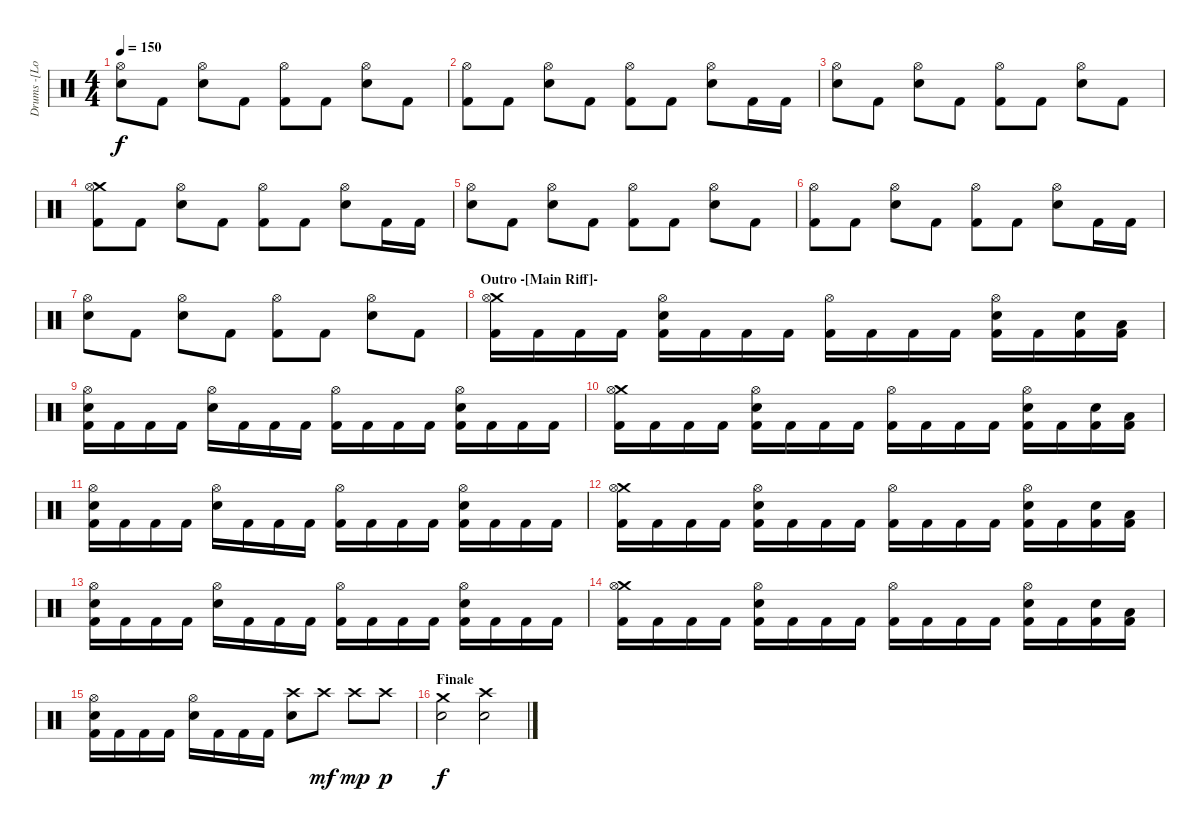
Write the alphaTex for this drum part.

\track ("Drums -[Lorenz]-" "Drums -[Lo") {instrument percussion}
\staff {score}
\articulation defaults
\ts (4 4)
\tempo 150
\clef neutral
\ks c
("Hi-Hat (open)" "Electric Snare (hit)").8{dy f} "Kick (hit) 2".8 ("Hi-Hat (open)" "Electric Snare (hit)").8 "Kick (hit) 2".8 ("Hi-Hat (open)" "Kick (hit) 2").8 "Kick (hit) 2".8 ("Hi-Hat (open)" "Electric Snare (hit)").8 "Kick (hit) 2".8 |
("Hi-Hat (open)" "Kick (hit) 2").8 "Kick (hit) 2".8 ("Hi-Hat (open)" "Electric Snare (hit)").8 "Kick (hit) 2".8 ("Hi-Hat (open)" "Kick (hit) 2").8 "Kick (hit) 2".8 ("Hi-Hat (open)" "Electric Snare (hit)").8 "Kick (hit) 2".16 "Kick (hit) 2".16 |
("Hi-Hat (open)" "Electric Snare (hit)").8 "Kick (hit) 2".8 ("Hi-Hat (open)" "Electric Snare (hit)").8 "Kick (hit) 2".8 ("Hi-Hat (open)" "Kick (hit) 2").8 "Kick (hit) 2".8 ("Hi-Hat (open)" "Electric Snare (hit)").8 "Kick (hit) 2".8 |
("Crash medium (hit)" "Hi-Hat (open)" "Kick (hit) 2").8 "Kick (hit) 2".8 ("Hi-Hat (open)" "Electric Snare (hit)").8 "Kick (hit) 2".8 ("Hi-Hat (open)" "Kick (hit) 2").8 "Kick (hit) 2".8 ("Hi-Hat (open)" "Electric Snare (hit)").8 "Kick (hit) 2".16 "Kick (hit) 2".16 |
("Hi-Hat (open)" "Electric Snare (hit)").8 "Kick (hit) 2".8 ("Hi-Hat (open)" "Electric Snare (hit)").8 "Kick (hit) 2".8 ("Hi-Hat (open)" "Kick (hit) 2").8 "Kick (hit) 2".8 ("Hi-Hat (open)" "Electric Snare (hit)").8 "Kick (hit) 2".8 |
("Hi-Hat (open)" "Kick (hit) 2").8 "Kick (hit) 2".8 ("Hi-Hat (open)" "Electric Snare (hit)").8 "Kick (hit) 2".8 ("Hi-Hat (open)" "Kick (hit) 2").8 "Kick (hit) 2".8 ("Hi-Hat (open)" "Electric Snare (hit)").8 "Kick (hit) 2".16 "Kick (hit) 2".16 |
("Hi-Hat (open)" "Electric Snare (hit)").8 "Kick (hit) 2".8 ("Hi-Hat (open)" "Electric Snare (hit)").8 "Kick (hit) 2".8 ("Hi-Hat (open)" "Kick (hit) 2").8 "Kick (hit) 2".8 ("Hi-Hat (open)" "Electric Snare (hit)").8 "Kick (hit) 2".8 |
\section ("" "Outro -[Main Riff]-")
("Crash medium (hit)" "Hi-Hat (open)" "Kick (hit) 2").16 "Kick (hit) 2".16 "Kick (hit) 2".16 "Kick (hit) 2".16 ("Hi-Hat (open)" "Electric Snare (hit)" "Kick (hit) 2").16 "Kick (hit) 2".16 "Kick (hit) 2".16 "Kick (hit) 2".16 ("Hi-Hat (open)" "Kick (hit) 2").16 "Kick (hit) 2".16 "Kick (hit) 2".16 "Kick (hit) 2".16 ("Hi-Hat (open)" "Electric Snare (hit)" "Kick (hit) 2").16 "Kick (hit) 2".16 ("Electric Snare (hit)" "Kick (hit) 2").16 ("Low Tom (hit)" "Kick (hit) 2").16 |
("Hi-Hat (open)" "Electric Snare (hit)" "Kick (hit) 2").16 "Kick (hit) 2".16 "Kick (hit) 2".16 "Kick (hit) 2".16 ("Hi-Hat (open)" "Electric Snare (hit)").16 "Kick (hit) 2".16 "Kick (hit) 2".16 "Kick (hit) 2".16 ("Hi-Hat (open)" "Kick (hit) 2").16 "Kick (hit) 2".16 "Kick (hit) 2".16 "Kick (hit) 2".16 ("Hi-Hat (open)" "Electric Snare (hit)" "Kick (hit) 2").16 "Kick (hit) 2".16 "Kick (hit) 2".16 "Kick (hit) 2".16 |
("Crash medium (hit)" "Hi-Hat (open)" "Kick (hit) 2").16 "Kick (hit) 2".16 "Kick (hit) 2".16 "Kick (hit) 2".16 ("Hi-Hat (open)" "Electric Snare (hit)" "Kick (hit) 2").16 "Kick (hit) 2".16 "Kick (hit) 2".16 "Kick (hit) 2".16 ("Hi-Hat (open)" "Kick (hit) 2").16 "Kick (hit) 2".16 "Kick (hit) 2".16 "Kick (hit) 2".16 ("Hi-Hat (open)" "Electric Snare (hit)" "Kick (hit) 2").16 "Kick (hit) 2".16 ("Electric Snare (hit)" "Kick (hit) 2").16 ("Low Tom (hit)" "Kick (hit) 2").16 |
("Hi-Hat (open)" "Electric Snare (hit)" "Kick (hit) 2").16 "Kick (hit) 2".16 "Kick (hit) 2".16 "Kick (hit) 2".16 ("Hi-Hat (open)" "Electric Snare (hit)").16 "Kick (hit) 2".16 "Kick (hit) 2".16 "Kick (hit) 2".16 ("Hi-Hat (open)" "Kick (hit) 2").16 "Kick (hit) 2".16 "Kick (hit) 2".16 "Kick (hit) 2".16 ("Hi-Hat (open)" "Electric Snare (hit)" "Kick (hit) 2").16 "Kick (hit) 2".16 "Kick (hit) 2".16 "Kick (hit) 2".16 |
("Crash medium (hit)" "Hi-Hat (open)" "Kick (hit) 2").16 "Kick (hit) 2".16 "Kick (hit) 2".16 "Kick (hit) 2".16 ("Hi-Hat (open)" "Electric Snare (hit)" "Kick (hit) 2").16 "Kick (hit) 2".16 "Kick (hit) 2".16 "Kick (hit) 2".16 ("Hi-Hat (open)" "Kick (hit) 2").16 "Kick (hit) 2".16 "Kick (hit) 2".16 "Kick (hit) 2".16 ("Hi-Hat (open)" "Electric Snare (hit)" "Kick (hit) 2").16 "Kick (hit) 2".16 ("Electric Snare (hit)" "Kick (hit) 2").16 ("Low Tom (hit)" "Kick (hit) 2").16 |
("Hi-Hat (open)" "Electric Snare (hit)" "Kick (hit) 2").16 "Kick (hit) 2".16 "Kick (hit) 2".16 "Kick (hit) 2".16 ("Hi-Hat (open)" "Electric Snare (hit)").16 "Kick (hit) 2".16 "Kick (hit) 2".16 "Kick (hit) 2".16 ("Hi-Hat (open)" "Kick (hit) 2").16 "Kick (hit) 2".16 "Kick (hit) 2".16 "Kick (hit) 2".16 ("Hi-Hat (open)" "Electric Snare (hit)" "Kick (hit) 2").16 "Kick (hit) 2".16 "Kick (hit) 2".16 "Kick (hit) 2".16 |
("Crash medium (hit)" "Hi-Hat (open)" "Kick (hit) 2").16 "Kick (hit) 2".16 "Kick (hit) 2".16 "Kick (hit) 2".16 ("Hi-Hat (open)" "Electric Snare (hit)" "Kick (hit) 2").16 "Kick (hit) 2".16 "Kick (hit) 2".16 "Kick (hit) 2".16 ("Hi-Hat (open)" "Kick (hit) 2").16 "Kick (hit) 2".16 "Kick (hit) 2".16 "Kick (hit) 2".16 ("Hi-Hat (open)" "Electric Snare (hit)" "Kick (hit) 2").16 "Kick (hit) 2".16 ("Electric Snare (hit)" "Kick (hit) 2").16 ("Low Tom (hit)" "Kick (hit) 2").16 |
("Hi-Hat (open)" "Electric Snare (hit)" "Kick (hit) 2").16 "Kick (hit) 2".16 "Kick (hit) 2".16 "Kick (hit) 2".16 ("Hi-Hat (open)" "Electric Snare (hit)").16 "Kick (hit) 2".16 "Kick (hit) 2".16 "Kick (hit) 2".16 ("Electric Snare (hit)" "Crash high (hit)").8 "Crash high (hit)".8{dy mf} "Crash high (hit)".8{dy mp} "Crash high (hit)".8{dy p} |
\section ("" "Finale")
("Crash medium (hit)" "Electric Snare (hit)").2{dy f} ("Crash high (hit)" "Electric Snare (hit)").2
